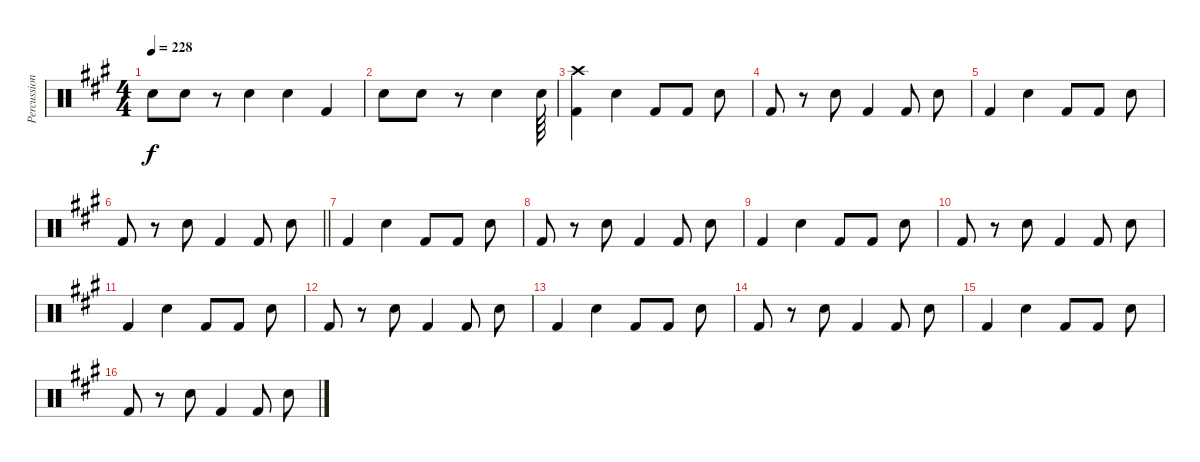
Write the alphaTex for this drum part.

\track ("Percussion" "Percussion") {instrument percussion}
\staff {score}
\articulation defaults
\ts (4 4)
\tempo 228
\clef neutral
\ks a "Snare (hit) 2".8{dy f} "Snare (hit) 2".8
r.8 "Snare (hit) 2".4 "Snare (hit) 2".4 "Kick (hit) 2".4 |
"Snare (hit) 2".8 "Snare (hit) 2".8 r.8 "Snare (hit) 2".4 "Snare (hit) 2".64 |
("Crash high (hit)" "Kick (hit) 2").4 "Snare (hit) 2".4 "Kick (hit) 2".8 "Kick (hit) 2".8 "Snare (hit) 2".8 |
"Kick (hit) 2".8 r.8 "Snare (hit) 2".8 "Kick (hit) 2".4 "Kick (hit) 2".8 "Snare (hit) 2".8 |
"Kick (hit) 2".4 "Snare (hit) 2".4 "Kick (hit) 2".8 "Kick (hit) 2".8 "Snare (hit) 2".8 |
\barLineRight lightlight "Kick (hit) 2".8
r.8 "Snare (hit) 2".8 "Kick (hit) 2".4 "Kick (hit) 2".8 "Snare (hit) 2".8 |
"Kick (hit) 2".4 "Snare (hit) 2".4 "Kick (hit) 2".8 "Kick (hit) 2".8 "Snare (hit) 2".8 |
"Kick (hit) 2".8 r.8 "Snare (hit) 2".8 "Kick (hit) 2".4 "Kick (hit) 2".8 "Snare (hit) 2".8 |
"Kick (hit) 2".4 "Snare (hit) 2".4 "Kick (hit) 2".8 "Kick (hit) 2".8 "Snare (hit) 2".8 |
"Kick (hit) 2".8 r.8 "Snare (hit) 2".8 "Kick (hit) 2".4 "Kick (hit) 2".8 "Snare (hit) 2".8 |
"Kick (hit) 2".4 "Snare (hit) 2".4 "Kick (hit) 2".8 "Kick (hit) 2".8 "Snare (hit) 2".8 |
"Kick (hit) 2".8 r.8 "Snare (hit) 2".8 "Kick (hit) 2".4 "Kick (hit) 2".8 "Snare (hit) 2".8 |
"Kick (hit) 2".4 "Snare (hit) 2".4 "Kick (hit) 2".8 "Kick (hit) 2".8 "Snare (hit) 2".8 |
"Kick (hit) 2".8 r.8 "Snare (hit) 2".8 "Kick (hit) 2".4 "Kick (hit) 2".8 "Snare (hit) 2".8 |
"Kick (hit) 2".4 "Snare (hit) 2".4 "Kick (hit) 2".8 "Kick (hit) 2".8 "Snare (hit) 2".8 |
"Kick (hit) 2".8 r.8 "Snare (hit) 2".8 "Kick (hit) 2".4 "Kick (hit) 2".8 "Snare (hit) 2".8
